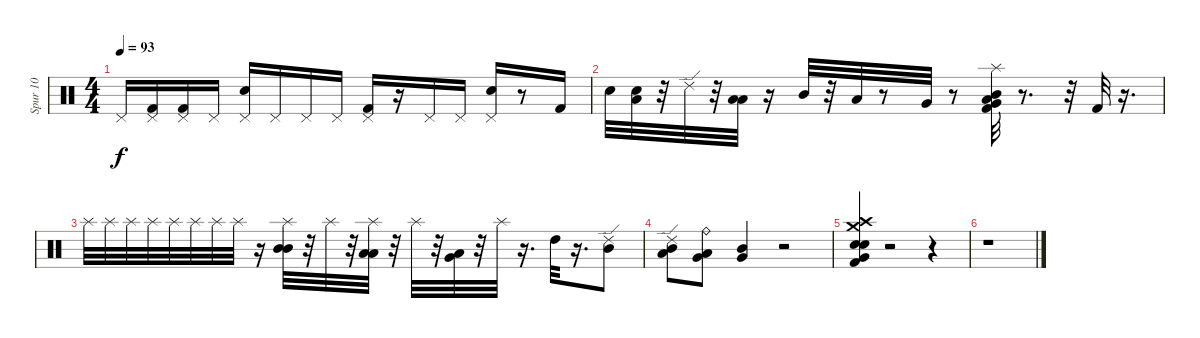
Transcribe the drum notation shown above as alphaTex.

\track ("Spur 10" "Spur 10") {instrument percussion}
\staff {score}
\articulation defaults
\ts (4 4)
\tempo 93
\clef neutral
\ks c "Pedal Hi-Hat (hit)".16{dy f}
("Pedal Hi-Hat (hit)" "Kick (hit) 2").16 ("Pedal Hi-Hat (hit)" "Kick (hit) 2").16 "Pedal Hi-Hat (hit)".16 ("Pedal Hi-Hat (hit)" "Electric Snare (hit)").16 "Pedal Hi-Hat (hit)".16 "Pedal Hi-Hat (hit)".16 "Pedal Hi-Hat (hit)".16 ("Pedal Hi-Hat (hit)" "Kick (hit) 2").16 r.16 "Pedal Hi-Hat (hit)".16 "Pedal Hi-Hat (hit)".16 ("Pedal Hi-Hat (hit)" "Electric Snare (hit)").16 r.8 "Kick (hit) 2".16 |
"Electric Snare (hit)".32 ("Low Tom (hit)" "Electric Snare (hit)").32 r.32 "Ride (edge) 2".32 r.32 ("Low Tom (hit)" "Low Tom (hit)").32 r.16 "Mid Tom (hit)".32 r.32 "Low Tom (hit)".32 r.8 "Very Low Tom (hit)".32 r.8 ("Low Tom (hit)" "Very Low Tom (hit)" "Kick (hit) 2" "Splash (hit)" "Mid Tom (hit)").32 r.8{d} r.32 "Kick (hit) 2".32 r.16{d} |
"Splash (hit)".32 "Splash (hit)".32 "Splash (hit)".32 "Splash (hit)".32 "Splash (hit)".32 "Splash (hit)".32 "Splash (hit)".32 "Splash (hit)".32 r.16 ("Mid Tom (hit)" "Mid Tom (hit)" "Splash (hit)").32 r.32 "Splash (hit)".32 r.32 ("Low Tom (hit)" "Low Tom (hit)" "Splash (hit)").32 r.32 "Splash (hit)".32 r.32 ("Low Tom (hit)" "Very Low Tom (hit)").32 r.32 "Splash (hit)".32 r.16{d} "High Tom (hit)".32 r.16{d} ("Ride (edge) 2" "Mid Tom (hit)").8 |
("Ride (edge) 2" "Mid Tom (hit)" "Low Tom (hit)").8 ("Ride (bell)" "Low Tom (hit)" "Very Low Tom (hit)").8 ("Mid Tom (hit)" "Very Low Tom (hit)").4 r.2 |
("Crash high (hit)" "Crash medium (hit)" "Kick (hit) 2" "Very Low Tom (hit)" "Snare (hit) 2" "Electric Snare (hit)").4 r.2 r.4 |
r.1
